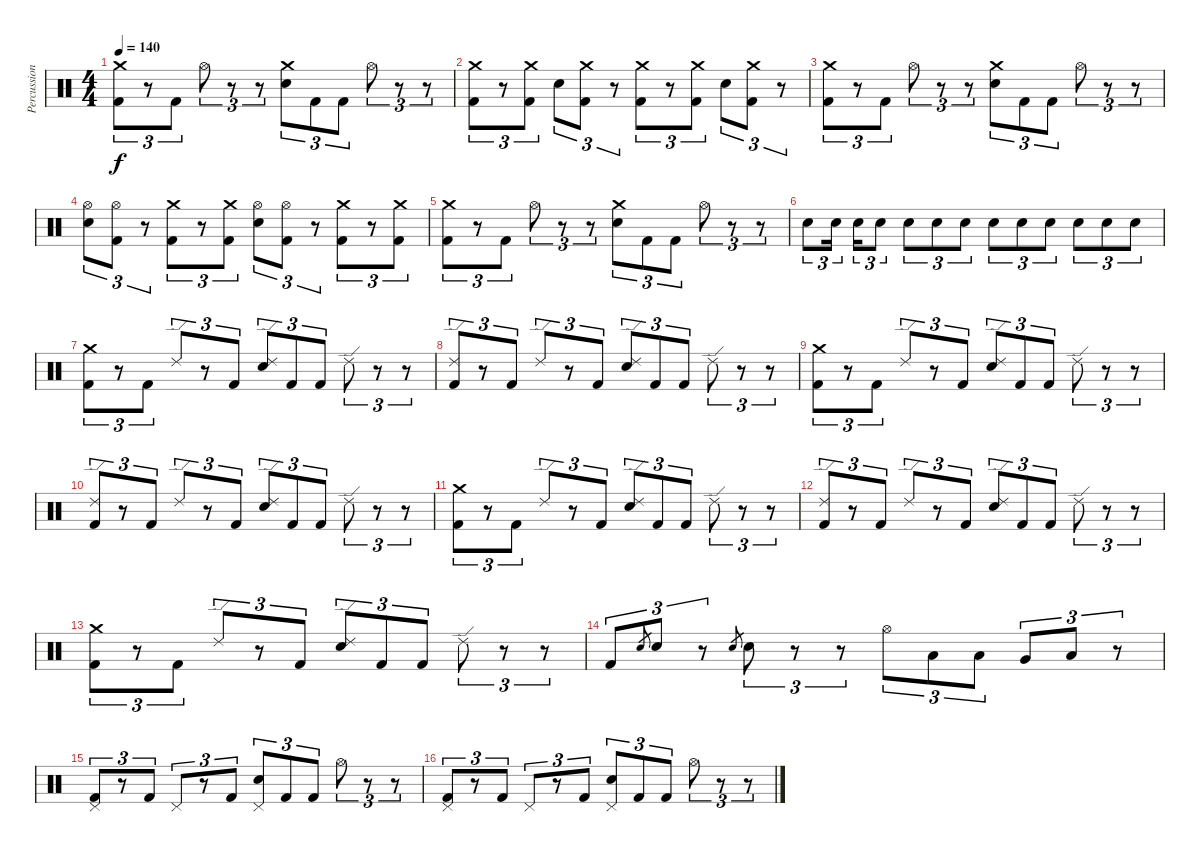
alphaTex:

\track ("Percussion" "Percussion") {instrument percussion}
\staff {score}
\articulation defaults
\ts (4 4)
\tempo 140
\clef neutral
\ks c
("Crash medium (hit)" "Kick (hit) 2").8{tu (3 2) dy f} r.8{tu (3 2)} "Kick (hit) 2".8{tu (3 2)} "Hi-Hat (open)".8{tu (3 2)} r.8{tu (3 2)} r.8{tu (3 2)} ("Crash medium (hit)" "Electric Snare (hit)").8{tu (3 2)} "Kick (hit) 2".8{tu (3 2)} "Kick (hit) 2".8{tu (3 2)} "Hi-Hat (open)".8{tu (3 2)} r.8{tu (3 2)} r.8{tu (3 2)} |
("Crash medium (hit)" "Kick (hit) 2").8{tu (3 2)} r.8{tu (3 2)} ("Crash medium (hit)" "Kick (hit) 2").8{tu (3 2)} "Electric Snare (hit)".8{tu (3 2)} ("Crash medium (hit)" "Kick (hit) 2").8{tu (3 2)} r.8{tu (3 2)} ("Crash medium (hit)" "Kick (hit) 2").8{tu (3 2)} r.8{tu (3 2)} ("Crash medium (hit)" "Kick (hit) 2").8{tu (3 2)} "Electric Snare (hit)".8{tu (3 2)} ("Crash medium (hit)" "Kick (hit) 2").8{tu (3 2)} r.8{tu (3 2)} |
("Crash medium (hit)" "Kick (hit) 2").8{tu (3 2)} r.8{tu (3 2)} "Kick (hit) 2".8{tu (3 2)} "Hi-Hat (open)".8{tu (3 2)} r.8{tu (3 2)} r.8{tu (3 2)} ("Crash medium (hit)" "Electric Snare (hit)").8{tu (3 2)} "Kick (hit) 2".8{tu (3 2)} "Kick (hit) 2".8{tu (3 2)} "Hi-Hat (open)".8{tu (3 2)} r.8{tu (3 2)} r.8{tu (3 2)} |
("Hi-Hat (open)" "Electric Snare (hit)").8{tu (3 2)} ("Hi-Hat (open)" "Kick (hit) 2").8{tu (3 2)} r.8{tu (3 2)} ("Crash medium (hit)" "Kick (hit) 2").8{tu (3 2)} r.8{tu (3 2)} ("Crash medium (hit)" "Kick (hit) 2").8{tu (3 2)} ("Hi-Hat (open)" "Electric Snare (hit)").8{tu (3 2)} ("Hi-Hat (open)" "Kick (hit) 2").8{tu (3 2)} r.8{tu (3 2)} ("Crash medium (hit)" "Kick (hit) 2").8{tu (3 2)} r.8{tu (3 2)} ("Crash medium (hit)" "Kick (hit) 2").8{tu (3 2)} |
("Crash medium (hit)" "Kick (hit) 2").8{tu (3 2)} r.8{tu (3 2)} "Kick (hit) 2".8{tu (3 2)} "Hi-Hat (open)".8{tu (3 2)} r.8{tu (3 2)} r.8{tu (3 2)} ("Crash medium (hit)" "Electric Snare (hit)").8{tu (3 2)} "Kick (hit) 2".8{tu (3 2)} "Kick (hit) 2".8{tu (3 2)} "Hi-Hat (open)".8{tu (3 2)} r.8{tu (3 2)} r.8{tu (3 2)} |
"Electric Snare (hit)".8{tu (3 2)} "Electric Snare (hit)".16{tu (3 2) beam splitsecondary} "Electric Snare (hit)".16{tu (3 2)} "Electric Snare (hit)".8{tu (3 2)} "Electric Snare (hit)".8{tu (3 2)} "Electric Snare (hit)".8{tu (3 2)} "Electric Snare (hit)".8{tu (3 2)} "Electric Snare (hit)".8{tu (3 2)} "Electric Snare (hit)".8{tu (3 2)} "Electric Snare (hit)".8{tu (3 2)} "Electric Snare (hit)".8{tu (3 2)} "Electric Snare (hit)".8{tu (3 2)} "Electric Snare (hit)".8{tu (3 2)} |
("Crash medium (hit)" "Kick (hit) 2").8{tu (3 2)} r.8{tu (3 2)} "Kick (hit) 2".8{tu (3 2)} "Ride (edge) 2".8{tu (3 2)} r.8{tu (3 2)} "Kick (hit) 2".8{tu (3 2)} ("Ride (edge) 2" "Electric Snare (hit)").8{tu (3 2)} "Kick (hit) 2".8{tu (3 2)} "Kick (hit) 2".8{tu (3 2)} "Ride (edge) 2".8{tu (3 2)} r.8{tu (3 2)} r.8{tu (3 2)} |
("Ride (edge) 2" "Kick (hit) 2").8{tu (3 2)} r.8{tu (3 2)} "Kick (hit) 2".8{tu (3 2)} "Ride (edge) 2".8{tu (3 2)} r.8{tu (3 2)} "Kick (hit) 2".8{tu (3 2)} ("Ride (edge) 2" "Electric Snare (hit)").8{tu (3 2)} "Kick (hit) 2".8{tu (3 2)} "Kick (hit) 2".8{tu (3 2)} "Ride (edge) 2".8{tu (3 2)} r.8{tu (3 2)} r.8{tu (3 2)} |
("Crash medium (hit)" "Kick (hit) 2").8{tu (3 2)} r.8{tu (3 2)} "Kick (hit) 2".8{tu (3 2)} "Ride (edge) 2".8{tu (3 2)} r.8{tu (3 2)} "Kick (hit) 2".8{tu (3 2)} ("Ride (edge) 2" "Electric Snare (hit)").8{tu (3 2)} "Kick (hit) 2".8{tu (3 2)} "Kick (hit) 2".8{tu (3 2)} "Ride (edge) 2".8{tu (3 2)} r.8{tu (3 2)} r.8{tu (3 2)} |
("Ride (edge) 2" "Kick (hit) 2").8{tu (3 2)} r.8{tu (3 2)} "Kick (hit) 2".8{tu (3 2)} "Ride (edge) 2".8{tu (3 2)} r.8{tu (3 2)} "Kick (hit) 2".8{tu (3 2)} ("Ride (edge) 2" "Electric Snare (hit)").8{tu (3 2)} "Kick (hit) 2".8{tu (3 2)} "Kick (hit) 2".8{tu (3 2)} "Ride (edge) 2".8{tu (3 2)} r.8{tu (3 2)} r.8{tu (3 2)} |
("Crash medium (hit)" "Kick (hit) 2").8{tu (3 2)} r.8{tu (3 2)} "Kick (hit) 2".8{tu (3 2)} "Ride (edge) 2".8{tu (3 2)} r.8{tu (3 2)} "Kick (hit) 2".8{tu (3 2)} ("Ride (edge) 2" "Electric Snare (hit)").8{tu (3 2)} "Kick (hit) 2".8{tu (3 2)} "Kick (hit) 2".8{tu (3 2)} "Ride (edge) 2".8{tu (3 2)} r.8{tu (3 2)} r.8{tu (3 2)} |
("Ride (edge) 2" "Kick (hit) 2").8{tu (3 2)} r.8{tu (3 2)} "Kick (hit) 2".8{tu (3 2)} "Ride (edge) 2".8{tu (3 2)} r.8{tu (3 2)} "Kick (hit) 2".8{tu (3 2)} ("Ride (edge) 2" "Electric Snare (hit)").8{tu (3 2)} "Kick (hit) 2".8{tu (3 2)} "Kick (hit) 2".8{tu (3 2)} "Ride (edge) 2".8{tu (3 2)} r.8{tu (3 2)} r.8{tu (3 2)} |
("Crash medium (hit)" "Kick (hit) 2").8{tu (3 2)} r.8{tu (3 2)} "Kick (hit) 2".8{tu (3 2)} "Ride (edge) 2".8{tu (3 2)} r.8{tu (3 2)} "Kick (hit) 2".8{tu (3 2)} ("Ride (edge) 2" "Electric Snare (hit)").8{tu (3 2)} "Kick (hit) 2".8{tu (3 2)} "Kick (hit) 2".8{tu (3 2)} "Ride (edge) 2".8{tu (3 2)} r.8{tu (3 2)} r.8{tu (3 2)} |
"Kick (hit) 2".8{tu (3 2)} "Electric Snare (hit)".8{gr} "Electric Snare (hit)".8{tu (3 2)} r.8{tu (3 2)} "Electric Snare (hit)".8{gr} "Electric Snare (hit)".8{tu (3 2)} r.8{tu (3 2)} r.8{tu (3 2)} "Hi-Hat (open)".8{tu (3 2)} "Low Tom (hit)".8{tu (3 2)} "Low Tom (hit)".8{tu (3 2)} "Very Low Tom (hit)".8{tu (3 2)} "Low Floor Tom (hit)".8{tu (3 2)} r.8{tu (3 2)} |
("Pedal Hi-Hat (hit)" "Kick (hit) 2").8{tu (3 2)} r.8{tu (3 2)} "Kick (hit) 2".8{tu (3 2)} "Pedal Hi-Hat (hit)".8{tu (3 2)} r.8{tu (3 2)} "Kick (hit) 2".8{tu (3 2)} ("Pedal Hi-Hat (hit)" "Electric Snare (hit)").8{tu (3 2)} "Kick (hit) 2".8{tu (3 2)} "Kick (hit) 2".8{tu (3 2)} "Hi-Hat (open)".8{tu (3 2)} r.8{tu (3 2)} r.8{tu (3 2)} |
("Pedal Hi-Hat (hit)" "Kick (hit) 2").8{tu (3 2)} r.8{tu (3 2)} "Kick (hit) 2".8{tu (3 2)} "Pedal Hi-Hat (hit)".8{tu (3 2)} r.8{tu (3 2)} "Kick (hit) 2".8{tu (3 2)} ("Pedal Hi-Hat (hit)" "Electric Snare (hit)").8{tu (3 2)} "Kick (hit) 2".8{tu (3 2)} "Kick (hit) 2".8{tu (3 2)} "Hi-Hat (open)".8{tu (3 2)} r.8{tu (3 2)} r.8{tu (3 2)}
